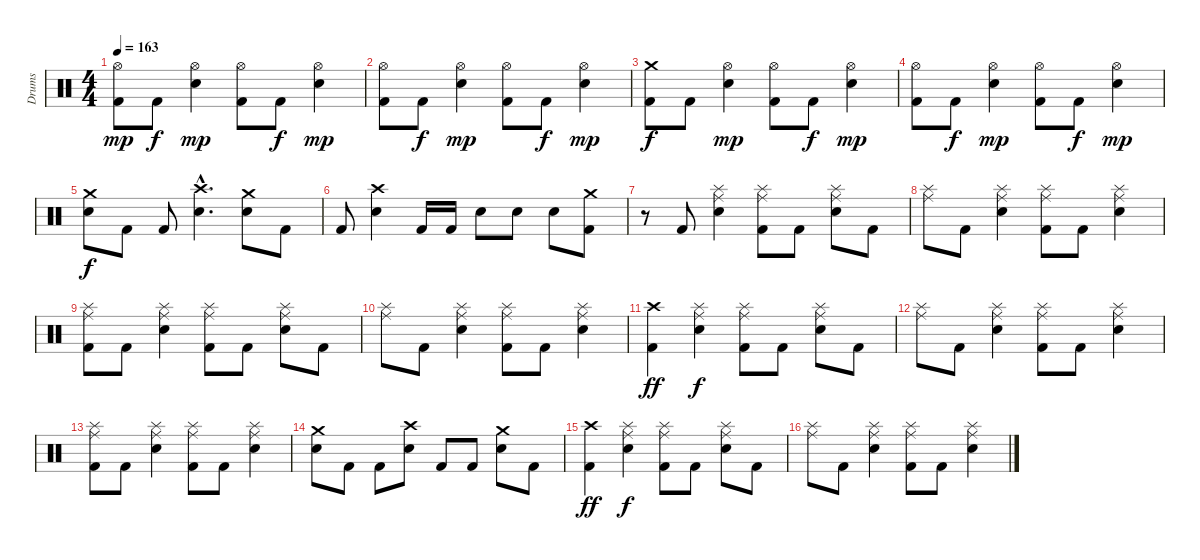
\track ("Drums" "Drums") {instrument percussion}
\staff {score}
\articulation defaults
\ts (4 4)
\tempo 163
\clef neutral
\ks c
("Hi-Hat (open)" "Kick (hit) 2").8{dy mp} "Kick (hit) 2".8{dy f} ("Hi-Hat (open)" "Electric Snare (hit)").4{dy mp} ("Hi-Hat (open)" "Kick (hit) 2").8 "Kick (hit) 2".8{dy f} ("Hi-Hat (open)" "Electric Snare (hit)").4{dy mp} |
("Hi-Hat (open)" "Kick (hit) 2").8 "Kick (hit) 2".8{dy f} ("Hi-Hat (open)" "Electric Snare (hit)").4{dy mp} ("Hi-Hat (open)" "Kick (hit) 2").8 "Kick (hit) 2".8{dy f} ("Hi-Hat (open)" "Electric Snare (hit)").4{dy mp} |
("Crash medium (hit)" "Kick (hit) 2").8{dy f} "Kick (hit) 2".8 ("Hi-Hat (open)" "Electric Snare (hit)").4{dy mp} ("Hi-Hat (open)" "Kick (hit) 2").8 "Kick (hit) 2".8{dy f} ("Hi-Hat (open)" "Electric Snare (hit)").4{dy mp} |
("Hi-Hat (open)" "Kick (hit) 2").8 "Kick (hit) 2".8{dy f} ("Hi-Hat (open)" "Electric Snare (hit)").4{dy mp} ("Hi-Hat (open)" "Kick (hit) 2").8 "Kick (hit) 2".8{dy f} ("Hi-Hat (open)" "Electric Snare (hit)").4{dy mp} |
("Crash medium (hit)" "Electric Snare (hit)").8{dy f} "Kick (hit) 2".8 "Kick (hit) 2".8 ("Crash high (hit)"{hac} "Electric Snare (hit)"{hac}).4{d} ("Crash medium (hit)" "Electric Snare (hit)").8 "Kick (hit) 2".8 |
"Kick (hit) 2".8 ("Crash high (hit)" "Electric Snare (hit)").4 "Kick (hit) 2".16 "Kick (hit) 2".16 "Electric Snare (hit)".8 "Electric Snare (hit)".8 "Electric Snare (hit)".8 ("Crash medium (hit)" "Kick (hit) 2").8 |
r.8 "Kick (hit) 2".8 ("Splash (hit)" "Ride (middle)" "Electric Snare (hit)").4 ("Splash (hit)" "Ride (middle)" "Kick (hit) 2").8 "Kick (hit) 2".8 ("Splash (hit)" "Ride (middle)" "Electric Snare (hit)").8 "Kick (hit) 2".8 |
("Splash (hit)" "Ride (middle)").8 "Kick (hit) 2".8 ("Splash (hit)" "Ride (middle)" "Electric Snare (hit)").4 ("Splash (hit)" "Ride (middle)" "Kick (hit) 2").8 "Kick (hit) 2".8 ("Splash (hit)" "Ride (middle)" "Electric Snare (hit)").4 |
("Splash (hit)" "Ride (middle)" "Kick (hit) 2").8 "Kick (hit) 2".8 ("Splash (hit)" "Ride (middle)" "Electric Snare (hit)").4 ("Splash (hit)" "Ride (middle)" "Kick (hit) 2").8 "Kick (hit) 2".8 ("Splash (hit)" "Ride (middle)" "Electric Snare (hit)").8 "Kick (hit) 2".8 |
("Splash (hit)" "Ride (middle)").8 "Kick (hit) 2".8 ("Splash (hit)" "Ride (middle)" "Electric Snare (hit)").4 ("Splash (hit)" "Ride (middle)" "Kick (hit) 2").8 "Kick (hit) 2".8 ("Splash (hit)" "Ride (middle)" "Electric Snare (hit)").4 |
("Crash high (hit)" "Kick (hit) 2").4{dy ff} ("Splash (hit)" "Ride (middle)" "Electric Snare (hit)").4{dy f} ("Splash (hit)" "Ride (middle)" "Kick (hit) 2").8 "Kick (hit) 2".8 ("Splash (hit)" "Ride (middle)" "Electric Snare (hit)").8 "Kick (hit) 2".8 |
("Splash (hit)" "Ride (middle)").8 "Kick (hit) 2".8 ("Splash (hit)" "Ride (middle)" "Electric Snare (hit)").4 ("Splash (hit)" "Ride (middle)" "Kick (hit) 2").8 "Kick (hit) 2".8 ("Splash (hit)" "Ride (middle)" "Electric Snare (hit)").4 |
("Splash (hit)" "Ride (middle)" "Kick (hit) 2").8 "Kick (hit) 2".8 ("Splash (hit)" "Ride (middle)" "Electric Snare (hit)").4 ("Splash (hit)" "Ride (middle)" "Kick (hit) 2").8 "Kick (hit) 2".8 ("Splash (hit)" "Ride (middle)" "Electric Snare (hit)").4 |
("Crash medium (hit)" "Electric Snare (hit)").8 "Kick (hit) 2".8 "Kick (hit) 2".8 ("Crash high (hit)" "Electric Snare (hit)").8 "Kick (hit) 2".8 "Kick (hit) 2".8 ("Crash medium (hit)" "Electric Snare (hit)").8 "Kick (hit) 2".8 |
("Crash high (hit)" "Kick (hit) 2").4{dy ff} ("Splash (hit)" "Ride (middle)" "Electric Snare (hit)").4{dy f} ("Splash (hit)" "Ride (middle)" "Kick (hit) 2").8 "Kick (hit) 2".8 ("Splash (hit)" "Ride (middle)" "Electric Snare (hit)").8 "Kick (hit) 2".8 |
("Splash (hit)" "Ride (middle)").8 "Kick (hit) 2".8 ("Splash (hit)" "Ride (middle)" "Electric Snare (hit)").4 ("Splash (hit)" "Ride (middle)" "Kick (hit) 2").8 "Kick (hit) 2".8 ("Splash (hit)" "Ride (middle)" "Electric Snare (hit)").4
